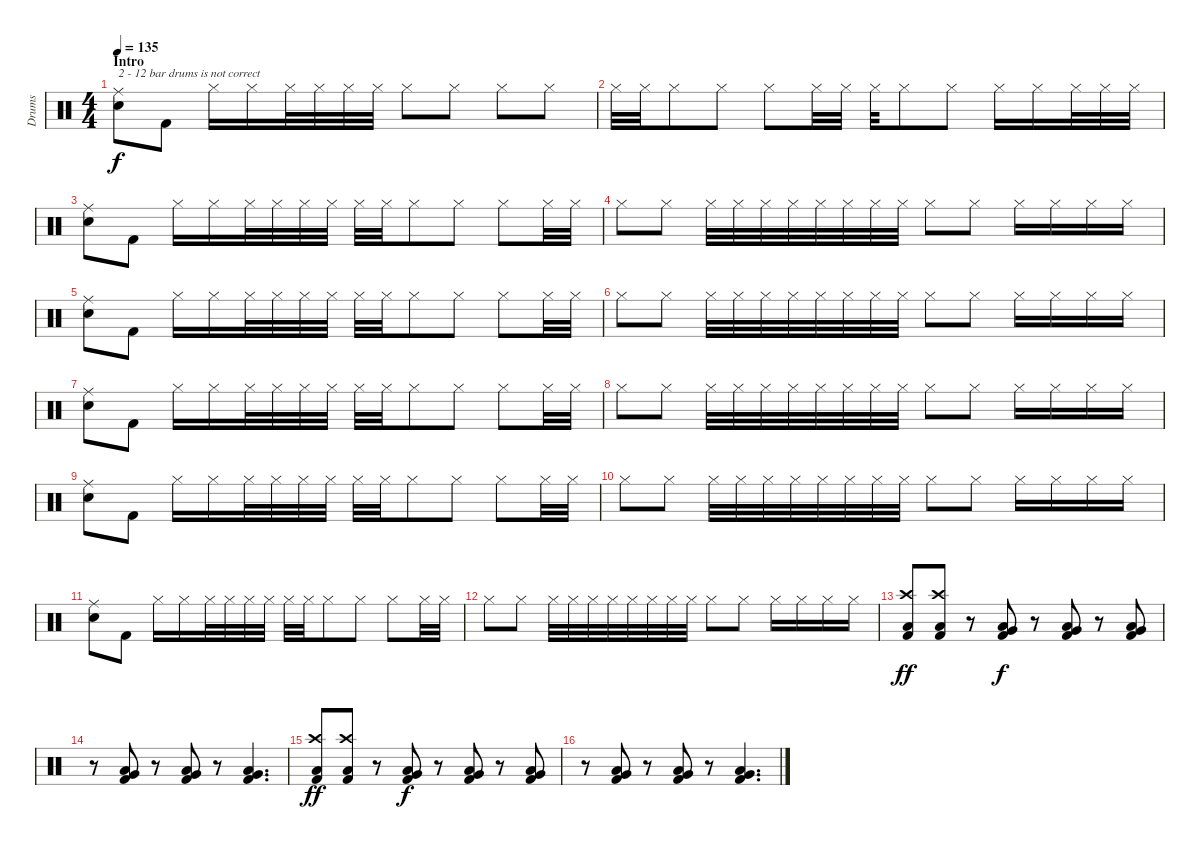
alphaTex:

\track ("Drums" "Drums") {instrument percussion}
\staff {score}
\articulation defaults
\ts (4 4)
\section ("" "Intro")
\tempo 135
\clef neutral
\ks c
("Ride (middle)" "Electric Snare (hit)").8{txt "2 - 12 bar drums is not correct" dy f} "Kick (hit) 2".8 "Hi-Hat (closed)".16 "Hi-Hat (closed)".16 "Hi-Hat (closed)".32 "Hi-Hat (closed)".32 "Hi-Hat (closed)".32 "Hi-Hat (closed)".32 "Hi-Hat (closed)".8 "Hi-Hat (closed)".8 "Hi-Hat (closed)".8 "Hi-Hat (closed)".8 |
"Hi-Hat (closed)".32 "Hi-Hat (closed)".32 "Hi-Hat (closed)".8 "Hi-Hat (closed)".8 "Hi-Hat (closed)".8 "Hi-Hat (closed)".32 "Hi-Hat (closed)".32 "Hi-Hat (closed)".32 "Hi-Hat (closed)".8 "Hi-Hat (closed)".8 "Hi-Hat (closed)".16 "Hi-Hat (closed)".16 "Hi-Hat (closed)".32 "Hi-Hat (closed)".32 "Hi-Hat (closed)".32 |
("Ride (middle)" "Electric Snare (hit)").8 "Kick (hit) 2".8 "Hi-Hat (closed)".16 "Hi-Hat (closed)".16 "Hi-Hat (closed)".32 "Hi-Hat (closed)".32 "Hi-Hat (closed)".32 "Hi-Hat (closed)".32 "Hi-Hat (closed)".32 "Hi-Hat (closed)".32 "Hi-Hat (closed)".8 "Hi-Hat (closed)".8 "Hi-Hat (closed)".8 "Hi-Hat (closed)".32 "Hi-Hat (closed)".32 |
"Hi-Hat (closed)".8 "Hi-Hat (closed)".8 "Hi-Hat (closed)".32 "Hi-Hat (closed)".32 "Hi-Hat (closed)".32 "Hi-Hat (closed)".32 "Hi-Hat (closed)".32 "Hi-Hat (closed)".32 "Hi-Hat (closed)".32 "Hi-Hat (closed)".32 "Hi-Hat (closed)".8 "Hi-Hat (closed)".8 "Hi-Hat (closed)".16 "Hi-Hat (closed)".16 "Hi-Hat (closed)".16 "Hi-Hat (closed)".16 |
("Ride (middle)" "Electric Snare (hit)").8 "Kick (hit) 2".8 "Hi-Hat (closed)".16 "Hi-Hat (closed)".16 "Hi-Hat (closed)".32 "Hi-Hat (closed)".32 "Hi-Hat (closed)".32 "Hi-Hat (closed)".32 "Hi-Hat (closed)".32 "Hi-Hat (closed)".32 "Hi-Hat (closed)".8 "Hi-Hat (closed)".8 "Hi-Hat (closed)".8 "Hi-Hat (closed)".32 "Hi-Hat (closed)".32 |
"Hi-Hat (closed)".8 "Hi-Hat (closed)".8 "Hi-Hat (closed)".32 "Hi-Hat (closed)".32 "Hi-Hat (closed)".32 "Hi-Hat (closed)".32 "Hi-Hat (closed)".32 "Hi-Hat (closed)".32 "Hi-Hat (closed)".32 "Hi-Hat (closed)".32 "Hi-Hat (closed)".8 "Hi-Hat (closed)".8 "Hi-Hat (closed)".16 "Hi-Hat (closed)".16 "Hi-Hat (closed)".16 "Hi-Hat (closed)".16 |
("Ride (middle)" "Electric Snare (hit)").8 "Kick (hit) 2".8 "Hi-Hat (closed)".16 "Hi-Hat (closed)".16 "Hi-Hat (closed)".32 "Hi-Hat (closed)".32 "Hi-Hat (closed)".32 "Hi-Hat (closed)".32 "Hi-Hat (closed)".32 "Hi-Hat (closed)".32 "Hi-Hat (closed)".8 "Hi-Hat (closed)".8 "Hi-Hat (closed)".8 "Hi-Hat (closed)".32 "Hi-Hat (closed)".32 |
"Hi-Hat (closed)".8 "Hi-Hat (closed)".8 "Hi-Hat (closed)".32 "Hi-Hat (closed)".32 "Hi-Hat (closed)".32 "Hi-Hat (closed)".32 "Hi-Hat (closed)".32 "Hi-Hat (closed)".32 "Hi-Hat (closed)".32 "Hi-Hat (closed)".32 "Hi-Hat (closed)".8 "Hi-Hat (closed)".8 "Hi-Hat (closed)".16 "Hi-Hat (closed)".16 "Hi-Hat (closed)".16 "Hi-Hat (closed)".16 |
("Ride (middle)" "Electric Snare (hit)").8 "Kick (hit) 2".8 "Hi-Hat (closed)".16 "Hi-Hat (closed)".16 "Hi-Hat (closed)".32 "Hi-Hat (closed)".32 "Hi-Hat (closed)".32 "Hi-Hat (closed)".32 "Hi-Hat (closed)".32 "Hi-Hat (closed)".32 "Hi-Hat (closed)".8 "Hi-Hat (closed)".8 "Hi-Hat (closed)".8 "Hi-Hat (closed)".32 "Hi-Hat (closed)".32 |
"Hi-Hat (closed)".8 "Hi-Hat (closed)".8 "Hi-Hat (closed)".32 "Hi-Hat (closed)".32 "Hi-Hat (closed)".32 "Hi-Hat (closed)".32 "Hi-Hat (closed)".32 "Hi-Hat (closed)".32 "Hi-Hat (closed)".32 "Hi-Hat (closed)".32 "Hi-Hat (closed)".8 "Hi-Hat (closed)".8 "Hi-Hat (closed)".16 "Hi-Hat (closed)".16 "Hi-Hat (closed)".16 "Hi-Hat (closed)".16 |
("Ride (middle)" "Electric Snare (hit)").8 "Kick (hit) 2".8 "Hi-Hat (closed)".16 "Hi-Hat (closed)".16 "Hi-Hat (closed)".32 "Hi-Hat (closed)".32 "Hi-Hat (closed)".32 "Hi-Hat (closed)".32 "Hi-Hat (closed)".32 "Hi-Hat (closed)".32 "Hi-Hat (closed)".8 "Hi-Hat (closed)".8 "Hi-Hat (closed)".8 "Hi-Hat (closed)".32 "Hi-Hat (closed)".32 |
"Hi-Hat (closed)".8 "Hi-Hat (closed)".8 "Hi-Hat (closed)".32 "Hi-Hat (closed)".32 "Hi-Hat (closed)".32 "Hi-Hat (closed)".32 "Hi-Hat (closed)".32 "Hi-Hat (closed)".32 "Hi-Hat (closed)".32 "Hi-Hat (closed)".32 "Hi-Hat (closed)".8 "Hi-Hat (closed)".8 "Hi-Hat (closed)".16 "Hi-Hat (closed)".16 "Hi-Hat (closed)".16 "Hi-Hat (closed)".16 |
("Crash high (hit)" "Low Floor Tom (hit)" "Kick (hit) 2").8{dy ff} ("Crash high (hit)" "Low Floor Tom (hit)" "Kick (hit) 2").8 r.8 ("Very Low Tom (hit)" "Low Floor Tom (hit)" "Kick (hit) 2").8{dy f} r.8 ("Very Low Tom (hit)" "Low Floor Tom (hit)" "Kick (hit) 2").8 r.8 ("Very Low Tom (hit)" "Low Floor Tom (hit)" "Kick (hit) 2").8 |
r.8 ("Very Low Tom (hit)" "Low Floor Tom (hit)" "Kick (hit) 2").8 r.8 ("Very Low Tom (hit)" "Low Floor Tom (hit)" "Kick (hit) 2").8 r.8 ("Very Low Tom (hit)" "Low Floor Tom (hit)" "Kick (hit) 2").4{d} |
("Crash high (hit)" "Low Floor Tom (hit)" "Kick (hit) 2").8{dy ff} ("Crash high (hit)" "Low Floor Tom (hit)" "Kick (hit) 2").8 r.8 ("Very Low Tom (hit)" "Low Floor Tom (hit)" "Kick (hit) 2").8{dy f} r.8 ("Very Low Tom (hit)" "Low Floor Tom (hit)" "Kick (hit) 2").8 r.8 ("Very Low Tom (hit)" "Low Floor Tom (hit)" "Kick (hit) 2").8 |
r.8 ("Very Low Tom (hit)" "Low Floor Tom (hit)" "Kick (hit) 2").8 r.8 ("Very Low Tom (hit)" "Low Floor Tom (hit)" "Kick (hit) 2").8 r.8 ("Very Low Tom (hit)" "Low Floor Tom (hit)" "Kick (hit) 2").4{d}
